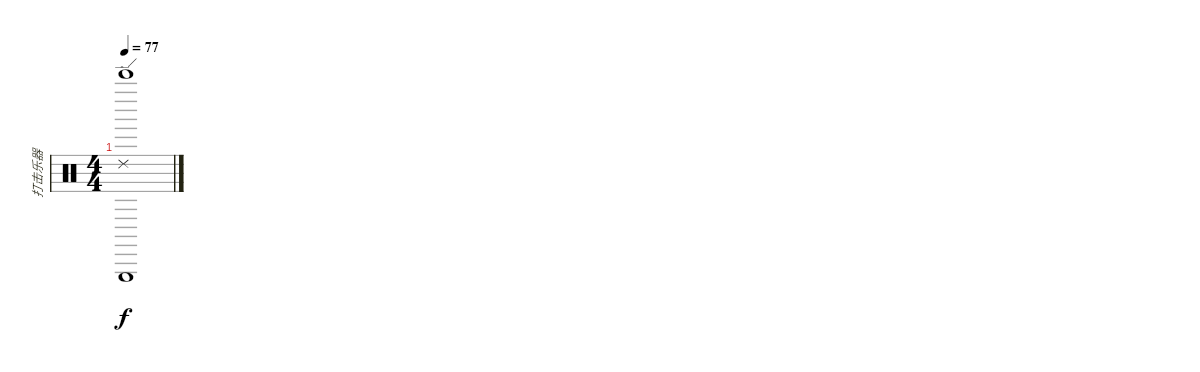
\track ("打击乐器" "打击乐器") {instrument percussion}
\staff {score}
\articulation defaults
\ts (4 4)
\tempo 77
\clef neutral
\ks c
("Bell Tree (hit)" "Triangle (hit)" "Ride (edge) 2").1{dy f}
